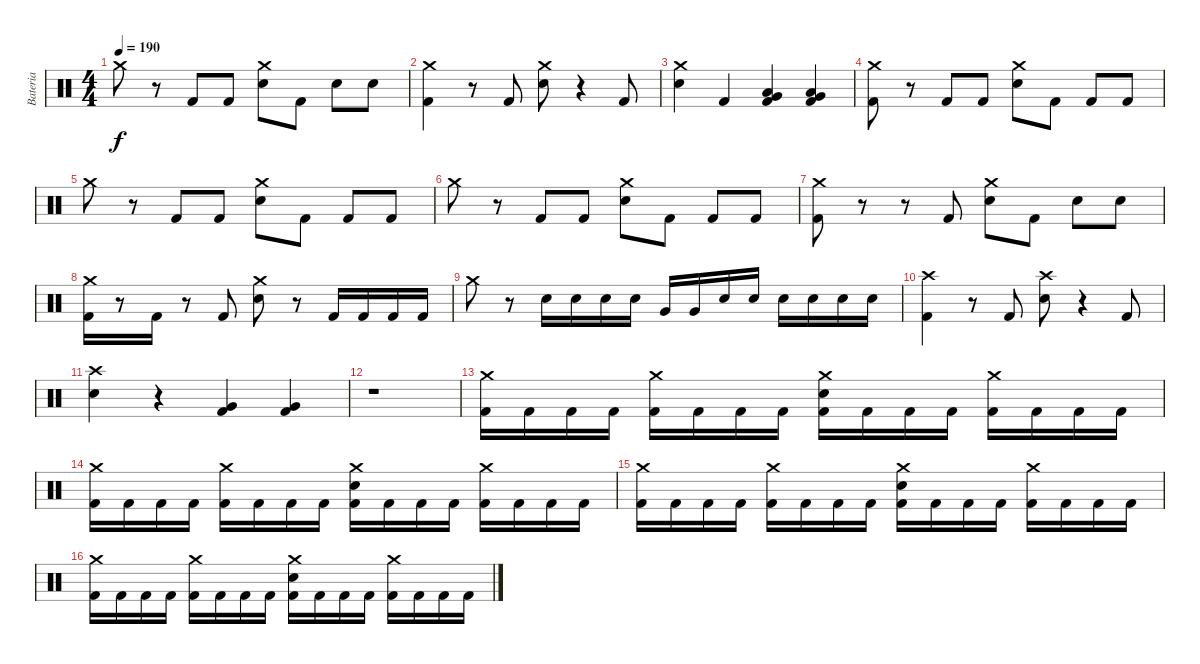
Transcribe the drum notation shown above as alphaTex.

\track ("Bateria" "Bateria") {instrument percussion}
\staff {score}
\articulation defaults
\ts (4 4)
\tempo 190
\clef neutral
\ks c "Crash medium (hit)".8{dy f}
r.8 "Kick (hit) 2".8 "Kick (hit) 2".8 ("Crash medium (hit)" "Electric Snare (hit)").8 "Kick (hit) 2".8 "Electric Snare (hit)".8 "Electric Snare (hit)".8 |
("Crash medium (hit)" "Kick (hit) 2").4 r.8 "Kick (hit) 2".8 ("Crash medium (hit)" "Electric Snare (hit)").8 r.4 "Kick (hit) 2".8 |
("Crash medium (hit)" "Electric Snare (hit)").4 "Kick (hit) 2".4 ("Low Floor Tom (hit)" "Very Low Tom (hit)" "Kick (hit) 2").4 ("Low Floor Tom (hit)" "Very Low Tom (hit)" "Kick (hit) 2").4 |
("Crash medium (hit)" "Kick (hit) 2").8 r.8 "Kick (hit) 2".8 "Kick (hit) 2".8 ("Crash medium (hit)" "Electric Snare (hit)").8 "Kick (hit) 2".8 "Kick (hit) 2".8 "Kick (hit) 2".8 |
"Crash medium (hit)".8 r.8 "Kick (hit) 2".8 "Kick (hit) 2".8 ("Crash medium (hit)" "Electric Snare (hit)").8 "Kick (hit) 2".8 "Kick (hit) 2".8 "Kick (hit) 2".8 |
"Crash medium (hit)".8 r.8 "Kick (hit) 2".8 "Kick (hit) 2".8 ("Crash medium (hit)" "Electric Snare (hit)").8 "Kick (hit) 2".8 "Kick (hit) 2".8 "Kick (hit) 2".8 |
("Crash medium (hit)" "Kick (hit) 2").8 r.8 r.8 "Kick (hit) 2".8 ("Crash medium (hit)" "Electric Snare (hit)").8 "Kick (hit) 2".8 "Electric Snare (hit)".8 "Electric Snare (hit)".8 |
("Crash medium (hit)" "Kick (hit) 2").16 r.8 "Kick (hit) 2".16 r.8 "Kick (hit) 2".8 ("Crash medium (hit)" "Electric Snare (hit)").8 r.8 "Kick (hit) 2".16 "Kick (hit) 2".16 "Kick (hit) 2".16 "Kick (hit) 2".16 |
"Crash medium (hit)".8 r.8 "Electric Snare (hit)".16 "Electric Snare (hit)".16 "Electric Snare (hit)".16 "Electric Snare (hit)".16 "Very Low Tom (hit)".16 "Very Low Tom (hit)".16 "Electric Snare (hit)".16 "Electric Snare (hit)".16 "Electric Snare (hit)".16 "Electric Snare (hit)".16 "Electric Snare (hit)".16 "Electric Snare (hit)".16 |
("Crash high (hit)" "Kick (hit) 2").4 r.8 "Kick (hit) 2".8 ("Crash high (hit)" "Electric Snare (hit)").8 r.4 "Kick (hit) 2".8 |
("Crash high (hit)" "Electric Snare (hit)").4 r.4 ("Very Low Tom (hit)" "Kick (hit) 2").4 ("Very Low Tom (hit)" "Kick (hit) 2").4 |
r.1 |
("Crash medium (hit)" "Kick (hit) 2").16 "Kick (hit) 2".16 "Kick (hit) 2".16 "Kick (hit) 2".16 ("Crash medium (hit)" "Kick (hit) 2").16 "Kick (hit) 2".16 "Kick (hit) 2".16 "Kick (hit) 2".16 ("Crash medium (hit)" "Electric Snare (hit)" "Kick (hit) 2").16 "Kick (hit) 2".16 "Kick (hit) 2".16 "Kick (hit) 2".16 ("Crash medium (hit)" "Kick (hit) 2").16 "Kick (hit) 2".16 "Kick (hit) 2".16 "Kick (hit) 2".16 |
("Crash medium (hit)" "Kick (hit) 2").16 "Kick (hit) 2".16 "Kick (hit) 2".16 "Kick (hit) 2".16 ("Crash medium (hit)" "Kick (hit) 2").16 "Kick (hit) 2".16 "Kick (hit) 2".16 "Kick (hit) 2".16 ("Crash medium (hit)" "Electric Snare (hit)" "Kick (hit) 2").16 "Kick (hit) 2".16 "Kick (hit) 2".16 "Kick (hit) 2".16 ("Crash medium (hit)" "Kick (hit) 2").16 "Kick (hit) 2".16 "Kick (hit) 2".16 "Kick (hit) 2".16 |
("Crash medium (hit)" "Kick (hit) 2").16 "Kick (hit) 2".16 "Kick (hit) 2".16 "Kick (hit) 2".16 ("Crash medium (hit)" "Kick (hit) 2").16 "Kick (hit) 2".16 "Kick (hit) 2".16 "Kick (hit) 2".16 ("Crash medium (hit)" "Electric Snare (hit)" "Kick (hit) 2").16 "Kick (hit) 2".16 "Kick (hit) 2".16 "Kick (hit) 2".16 ("Crash medium (hit)" "Kick (hit) 2").16 "Kick (hit) 2".16 "Kick (hit) 2".16 "Kick (hit) 2".16 |
("Crash medium (hit)" "Kick (hit) 2").16 "Kick (hit) 2".16 "Kick (hit) 2".16 "Kick (hit) 2".16 ("Crash medium (hit)" "Kick (hit) 2").16 "Kick (hit) 2".16 "Kick (hit) 2".16 "Kick (hit) 2".16 ("Crash medium (hit)" "Electric Snare (hit)" "Kick (hit) 2").16 "Kick (hit) 2".16 "Kick (hit) 2".16 "Kick (hit) 2".16 ("Crash medium (hit)" "Kick (hit) 2").16 "Kick (hit) 2".16 "Kick (hit) 2".16 "Kick (hit) 2".16
